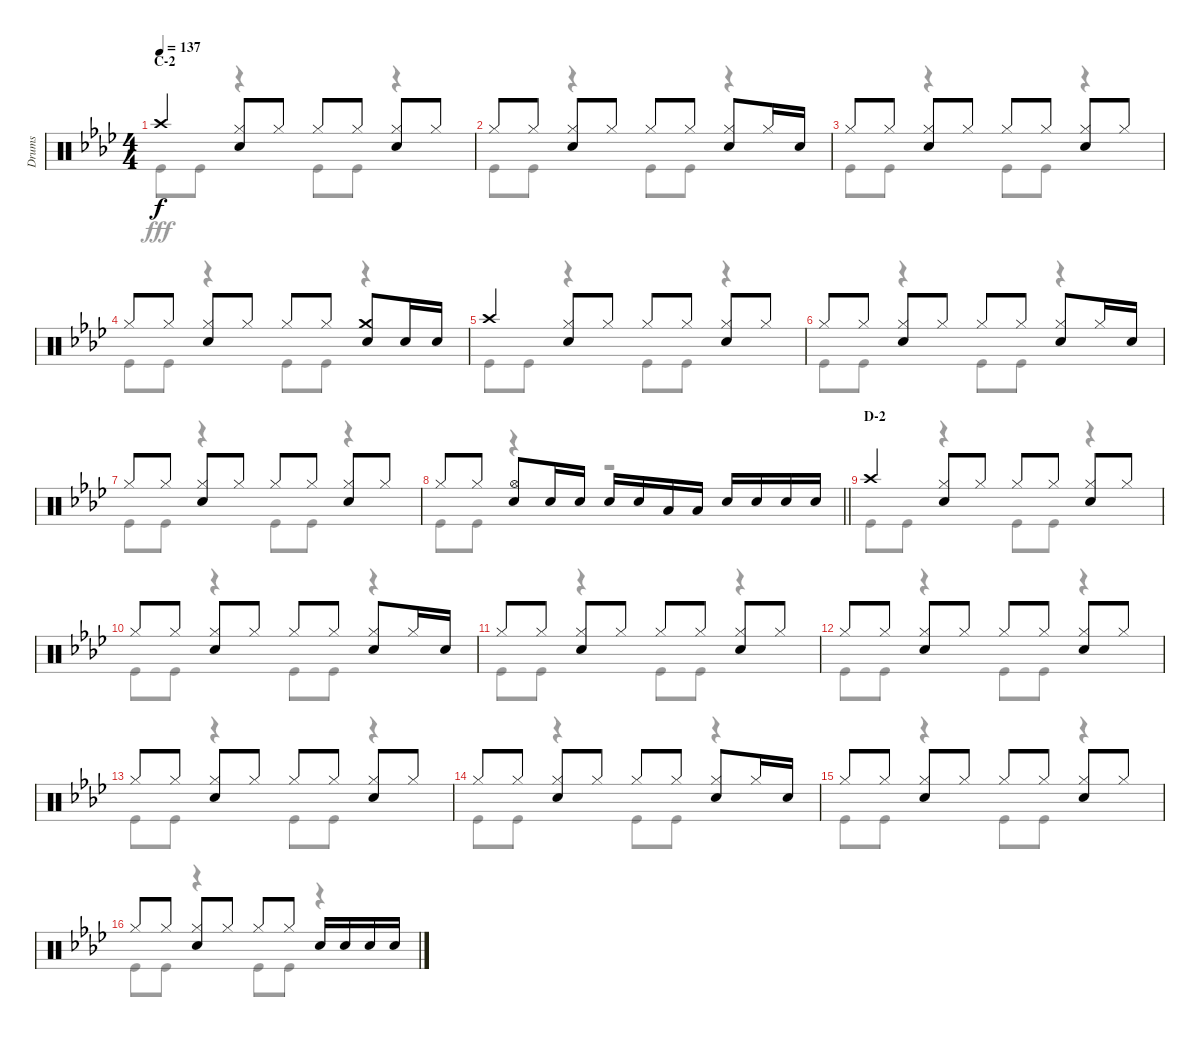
\track ("Drums" "Drums") {instrument percussion}
\staff {score}
\articulation defaults
\voice
\ts (4 4)
\section ("" "C-2")
\tempo 137
\clef neutral
\ks ab "Crash high (hit)".4{dy f}
("Hi-Hat (closed)" "Snare (hit) 2").8 "Hi-Hat (closed)".8 "Hi-Hat (closed)".8 "Hi-Hat (closed)".8 ("Hi-Hat (closed)" "Snare (hit) 2").8 "Hi-Hat (closed)".8 |
"Hi-Hat (closed)".8 "Hi-Hat (closed)".8 ("Hi-Hat (closed)" "Snare (hit) 2").8 "Hi-Hat (closed)".8 "Hi-Hat (closed)".8 "Hi-Hat (closed)".8 ("Hi-Hat (closed)" "Snare (hit) 2").8 "Hi-Hat (closed)".16 "Snare (hit) 2".16 |
"Hi-Hat (closed)".8 "Hi-Hat (closed)".8 ("Hi-Hat (closed)" "Snare (hit) 2").8 "Hi-Hat (closed)".8 "Hi-Hat (closed)".8 "Hi-Hat (closed)".8 ("Hi-Hat (closed)" "Snare (hit) 2").8 "Hi-Hat (closed)".8 |
"Hi-Hat (closed)".8 "Hi-Hat (closed)".8 ("Hi-Hat (closed)" "Snare (hit) 2").8 "Hi-Hat (closed)".8 "Hi-Hat (closed)".8 "Hi-Hat (closed)".8 ("Crash medium (hit)" "Snare (hit) 2").8 "Snare (hit) 2".16 "Snare (hit) 2".16 |
"Crash high (hit)".4 ("Hi-Hat (closed)" "Snare (hit) 2").8 "Hi-Hat (closed)".8 "Hi-Hat (closed)".8 "Hi-Hat (closed)".8 ("Hi-Hat (closed)" "Snare (hit) 2").8 "Hi-Hat (closed)".8 |
"Hi-Hat (closed)".8 "Hi-Hat (closed)".8 ("Hi-Hat (closed)" "Snare (hit) 2").8 "Hi-Hat (closed)".8 "Hi-Hat (closed)".8 "Hi-Hat (closed)".8 ("Hi-Hat (closed)" "Snare (hit) 2").8 "Hi-Hat (closed)".16 "Snare (hit) 2".16 |
"Hi-Hat (closed)".8 "Hi-Hat (closed)".8 ("Hi-Hat (closed)" "Snare (hit) 2").8 "Hi-Hat (closed)".8 "Hi-Hat (closed)".8 "Hi-Hat (closed)".8 ("Hi-Hat (closed)" "Snare (hit) 2").8 "Hi-Hat (closed)".8 |
\barLineRight lightlight "Hi-Hat (closed)".8 "Hi-Hat (closed)".8
("Hi-Hat (open)" "Snare (hit) 2").8 "Snare (hit) 2".16 "Snare (hit) 2".16 "Snare (hit) 2".16 "Snare (hit) 2".16 "Low Tom (hit)".16 "Low Tom (hit)".16 "Snare (hit) 2".16 "Snare (hit) 2".16 "Snare (hit) 2".16 "Snare (hit) 2".16 |
\section ("" "D-2")
"Crash high (hit)".4 ("Hi-Hat (closed)" "Snare (hit) 2").8 "Hi-Hat (closed)".8 "Hi-Hat (closed)".8 "Hi-Hat (closed)".8 ("Hi-Hat (closed)" "Snare (hit) 2").8 "Hi-Hat (closed)".8 |
"Hi-Hat (closed)".8 "Hi-Hat (closed)".8 ("Hi-Hat (closed)" "Snare (hit) 2").8 "Hi-Hat (closed)".8 "Hi-Hat (closed)".8 "Hi-Hat (closed)".8 ("Hi-Hat (closed)" "Snare (hit) 2").8 "Hi-Hat (closed)".16 "Snare (hit) 2".16 |
"Hi-Hat (closed)".8 "Hi-Hat (closed)".8 ("Hi-Hat (closed)" "Snare (hit) 2").8 "Hi-Hat (closed)".8 "Hi-Hat (closed)".8 "Hi-Hat (closed)".8 ("Hi-Hat (closed)" "Snare (hit) 2").8 "Hi-Hat (closed)".8 |
"Hi-Hat (closed)".8 "Hi-Hat (closed)".8 ("Hi-Hat (closed)" "Snare (hit) 2").8 "Hi-Hat (closed)".8 "Hi-Hat (closed)".8 "Hi-Hat (closed)".8 ("Hi-Hat (closed)" "Snare (hit) 2").8 "Hi-Hat (closed)".8 |
"Hi-Hat (closed)".8 "Hi-Hat (closed)".8 ("Hi-Hat (closed)" "Snare (hit) 2").8 "Hi-Hat (closed)".8 "Hi-Hat (closed)".8 "Hi-Hat (closed)".8 ("Hi-Hat (closed)" "Snare (hit) 2").8 "Hi-Hat (closed)".8 |
"Hi-Hat (closed)".8 "Hi-Hat (closed)".8 ("Hi-Hat (closed)" "Snare (hit) 2").8 "Hi-Hat (closed)".8 "Hi-Hat (closed)".8 "Hi-Hat (closed)".8 ("Hi-Hat (closed)" "Snare (hit) 2").8 "Hi-Hat (closed)".16 "Snare (hit) 2".16 |
"Hi-Hat (closed)".8 "Hi-Hat (closed)".8 ("Hi-Hat (closed)" "Snare (hit) 2").8 "Hi-Hat (closed)".8 "Hi-Hat (closed)".8 "Hi-Hat (closed)".8 ("Hi-Hat (closed)" "Snare (hit) 2").8 "Hi-Hat (closed)".8 |
"Hi-Hat (closed)".8 "Hi-Hat (closed)".8 ("Hi-Hat (closed)" "Snare (hit) 2").8 "Hi-Hat (closed)".8 "Hi-Hat (closed)".8 "Hi-Hat (closed)".8 "Snare (hit) 2".16 "Snare (hit) 2".16 "Snare (hit) 2".16 "Snare (hit) 2".16
\voice
\clef neutral
\ottava regular
\simile none
\ks ab "Kick (hit)".8{dy fff} "Kick (hit)".8
r.4 "Kick (hit)".8 "Kick (hit)".8 r.4 |
"Kick (hit)".8 "Kick (hit)".8 r.4 "Kick (hit)".8 "Kick (hit)".8 r.4 |
"Kick (hit)".8 "Kick (hit)".8 r.4 "Kick (hit)".8 "Kick (hit)".8 r.4 |
"Kick (hit)".8 "Kick (hit)".8 r.4 "Kick (hit)".8 "Kick (hit)".8 r.4 |
"Kick (hit)".8 "Kick (hit)".8 r.4 "Kick (hit)".8 "Kick (hit)".8 r.4 |
"Kick (hit)".8 "Kick (hit)".8 r.4 "Kick (hit)".8 "Kick (hit)".8 r.4 |
"Kick (hit)".8 "Kick (hit)".8 r.4 "Kick (hit)".8 "Kick (hit)".8 r.4 |
\barLineRight lightlight "Kick (hit)".8 "Kick (hit)".8
r.4 r.2 |
"Kick (hit)".8 "Kick (hit)".8 r.4 "Kick (hit)".8 "Kick (hit)".8 r.4 |
"Kick (hit)".8 "Kick (hit)".8 r.4 "Kick (hit)".8 "Kick (hit)".8 r.4 |
"Kick (hit)".8 "Kick (hit)".8 r.4 "Kick (hit)".8 "Kick (hit)".8 r.4 |
"Kick (hit)".8 "Kick (hit)".8 r.4 "Kick (hit)".8 "Kick (hit)".8 r.4 |
"Kick (hit)".8 "Kick (hit)".8 r.4 "Kick (hit)".8 "Kick (hit)".8 r.4 |
"Kick (hit)".8 "Kick (hit)".8 r.4 "Kick (hit)".8 "Kick (hit)".8 r.4 |
"Kick (hit)".8 "Kick (hit)".8 r.4 "Kick (hit)".8 "Kick (hit)".8 r.4 |
"Kick (hit)".8 "Kick (hit)".8 r.4 "Kick (hit)".8 "Kick (hit)".8 r.4
